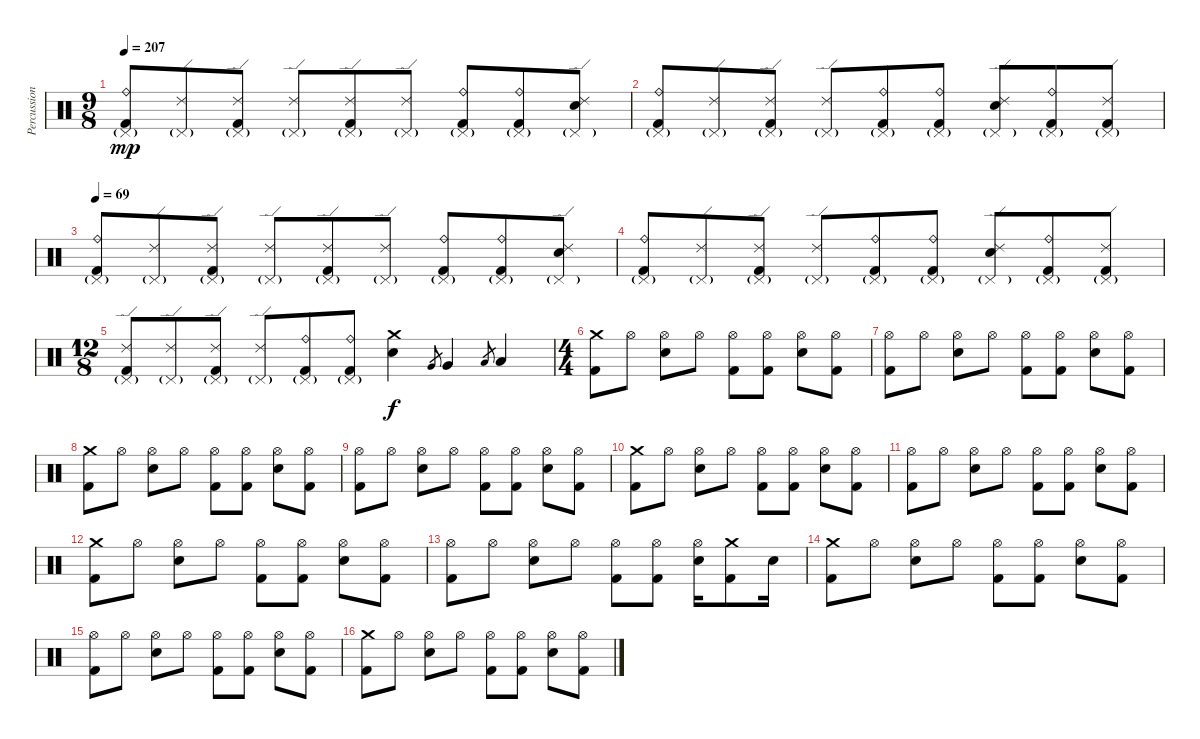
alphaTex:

\track ("Percussion" "Percussion") {instrument percussion}
\staff {score}
\articulation defaults
\ts (9 8)
\tempo 207
\clef neutral
\ks c
("Ride (bell)" "Pedal Hi-Hat (hit)"{g} "Kick (hit) 2").8{dy mp} ("Ride (edge) 2" "Pedal Hi-Hat (hit)"{g}).8 ("Ride (edge) 2" "Pedal Hi-Hat (hit)"{g} "Kick (hit) 2").8 ("Ride (edge) 2" "Pedal Hi-Hat (hit)"{g}).8 ("Ride (edge) 2" "Pedal Hi-Hat (hit)"{g} "Kick (hit) 2").8 ("Ride (edge) 2" "Pedal Hi-Hat (hit)"{g}).8 ("Ride (bell)" "Pedal Hi-Hat (hit)"{g} "Kick (hit) 2").8 ("Ride (bell)" "Pedal Hi-Hat (hit)"{g} "Kick (hit) 2").8 ("Ride (edge) 2" "Pedal Hi-Hat (hit)"{g} "Electric Snare (hit)").8 |
("Ride (bell)" "Pedal Hi-Hat (hit)"{g} "Kick (hit) 2").8 ("Ride (edge) 2" "Pedal Hi-Hat (hit)"{g}).8 ("Ride (edge) 2" "Pedal Hi-Hat (hit)"{g} "Kick (hit) 2").8 ("Ride (edge) 2" "Pedal Hi-Hat (hit)"{g}).8 ("Ride (bell)" "Pedal Hi-Hat (hit)"{g} "Kick (hit) 2").8 ("Ride (bell)" "Pedal Hi-Hat (hit)"{g} "Kick (hit) 2").8 ("Ride (edge) 2" "Pedal Hi-Hat (hit)"{g} "Electric Snare (hit)").8 ("Ride (bell)" "Pedal Hi-Hat (hit)"{g} "Kick (hit) 2").8 ("Ride (edge) 2" "Pedal Hi-Hat (hit)"{g} "Kick (hit) 2").8 |
\tempo 69
("Ride (bell)" "Pedal Hi-Hat (hit)"{g} "Kick (hit) 2").8 ("Ride (edge) 2" "Pedal Hi-Hat (hit)"{g}).8 ("Ride (edge) 2" "Pedal Hi-Hat (hit)"{g} "Kick (hit) 2").8 ("Ride (edge) 2" "Pedal Hi-Hat (hit)"{g}).8 ("Ride (edge) 2" "Pedal Hi-Hat (hit)"{g} "Kick (hit) 2").8 ("Ride (edge) 2" "Pedal Hi-Hat (hit)"{g}).8 ("Ride (bell)" "Pedal Hi-Hat (hit)"{g} "Kick (hit) 2").8 ("Ride (bell)" "Pedal Hi-Hat (hit)"{g} "Kick (hit) 2").8 ("Ride (edge) 2" "Pedal Hi-Hat (hit)"{g} "Electric Snare (hit)").8 |
("Ride (bell)" "Pedal Hi-Hat (hit)"{g} "Kick (hit) 2").8 ("Ride (edge) 2" "Pedal Hi-Hat (hit)"{g}).8 ("Ride (edge) 2" "Pedal Hi-Hat (hit)"{g} "Kick (hit) 2").8 ("Ride (edge) 2" "Pedal Hi-Hat (hit)"{g}).8 ("Ride (bell)" "Pedal Hi-Hat (hit)"{g} "Kick (hit) 2").8 ("Ride (bell)" "Pedal Hi-Hat (hit)"{g} "Kick (hit) 2").8 ("Ride (edge) 2" "Pedal Hi-Hat (hit)"{g} "Electric Snare (hit)").8 ("Ride (bell)" "Pedal Hi-Hat (hit)"{g} "Kick (hit) 2").8 ("Ride (edge) 2" "Pedal Hi-Hat (hit)"{g} "Kick (hit) 2").8 |
\ts (12 8)
("Ride (edge) 2" "Pedal Hi-Hat (hit)"{g} "Kick (hit) 2").8 ("Ride (edge) 2" "Pedal Hi-Hat (hit)"{g}).8 ("Ride (edge) 2" "Pedal Hi-Hat (hit)"{g} "Kick (hit) 2").8 ("Ride (edge) 2" "Pedal Hi-Hat (hit)"{g}).8 ("Ride (bell)" "Pedal Hi-Hat (hit)"{g} "Kick (hit) 2").8 ("Ride (bell)" "Pedal Hi-Hat (hit)"{g} "Kick (hit) 2").8 ("Crash medium (hit)" "Electric Snare (hit)").4{dy f} "Very Low Tom (hit)".8{gr} "Very Low Tom (hit)".4 "Low Floor Tom (hit)".8{gr} "Low Floor Tom (hit)".4 |
\ts (4 4)
("Crash medium (hit)" "Kick (hit) 2").8 "Hi-Hat (open)".8 ("Hi-Hat (open)" "Electric Snare (hit)").8 "Hi-Hat (open)".8 ("Hi-Hat (open)" "Kick (hit) 2").8 ("Hi-Hat (open)" "Kick (hit) 2").8 ("Hi-Hat (open)" "Electric Snare (hit)").8 ("Hi-Hat (open)" "Kick (hit) 2").8 |
("Hi-Hat (open)" "Kick (hit) 2").8 "Hi-Hat (open)".8 ("Hi-Hat (open)" "Electric Snare (hit)").8 "Hi-Hat (open)".8 ("Hi-Hat (open)" "Kick (hit) 2").8 ("Hi-Hat (open)" "Kick (hit) 2").8 ("Hi-Hat (open)" "Electric Snare (hit)").8 ("Hi-Hat (open)" "Kick (hit) 2").8 |
("Crash medium (hit)" "Kick (hit) 2").8 "Hi-Hat (open)".8 ("Hi-Hat (open)" "Electric Snare (hit)").8 "Hi-Hat (open)".8 ("Hi-Hat (open)" "Kick (hit) 2").8 ("Hi-Hat (open)" "Kick (hit) 2").8 ("Hi-Hat (open)" "Electric Snare (hit)").8 ("Hi-Hat (open)" "Kick (hit) 2").8 |
("Hi-Hat (open)" "Kick (hit) 2").8 "Hi-Hat (open)".8 ("Hi-Hat (open)" "Electric Snare (hit)").8 "Hi-Hat (open)".8 ("Hi-Hat (open)" "Kick (hit) 2").8 ("Hi-Hat (open)" "Kick (hit) 2").8 ("Hi-Hat (open)" "Electric Snare (hit)").8 ("Hi-Hat (open)" "Kick (hit) 2").8 |
("Crash medium (hit)" "Kick (hit) 2").8 "Hi-Hat (open)".8 ("Hi-Hat (open)" "Electric Snare (hit)").8 "Hi-Hat (open)".8 ("Hi-Hat (open)" "Kick (hit) 2").8 ("Hi-Hat (open)" "Kick (hit) 2").8 ("Hi-Hat (open)" "Electric Snare (hit)").8 ("Hi-Hat (open)" "Kick (hit) 2").8 |
("Hi-Hat (open)" "Kick (hit) 2").8 "Hi-Hat (open)".8 ("Hi-Hat (open)" "Electric Snare (hit)").8 "Hi-Hat (open)".8 ("Hi-Hat (open)" "Kick (hit) 2").8 ("Hi-Hat (open)" "Kick (hit) 2").8 ("Hi-Hat (open)" "Electric Snare (hit)").8 ("Hi-Hat (open)" "Kick (hit) 2").8 |
("Crash medium (hit)" "Kick (hit) 2").8 "Hi-Hat (open)".8 ("Hi-Hat (open)" "Electric Snare (hit)").8 "Hi-Hat (open)".8 ("Hi-Hat (open)" "Kick (hit) 2").8 ("Hi-Hat (open)" "Kick (hit) 2").8 ("Hi-Hat (open)" "Electric Snare (hit)").8 ("Hi-Hat (open)" "Kick (hit) 2").8 |
("Hi-Hat (open)" "Kick (hit) 2").8 "Hi-Hat (open)".8 ("Hi-Hat (open)" "Electric Snare (hit)").8 "Hi-Hat (open)".8 ("Hi-Hat (open)" "Kick (hit) 2").8 ("Hi-Hat (open)" "Kick (hit) 2").8 ("Hi-Hat (open)" "Electric Snare (hit)").16 ("Crash medium (hit)" "Kick (hit) 2").8 "Electric Snare (hit)".16 |
("Crash medium (hit)" "Kick (hit) 2").8 "Hi-Hat (open)".8 ("Hi-Hat (open)" "Electric Snare (hit)").8 "Hi-Hat (open)".8 ("Hi-Hat (open)" "Kick (hit) 2").8 ("Hi-Hat (open)" "Kick (hit) 2").8 ("Hi-Hat (open)" "Electric Snare (hit)").8 ("Hi-Hat (open)" "Kick (hit) 2").8 |
("Hi-Hat (open)" "Kick (hit) 2").8 "Hi-Hat (open)".8 ("Hi-Hat (open)" "Electric Snare (hit)").8 "Hi-Hat (open)".8 ("Hi-Hat (open)" "Kick (hit) 2").8 ("Hi-Hat (open)" "Kick (hit) 2").8 ("Hi-Hat (open)" "Electric Snare (hit)").8 ("Hi-Hat (open)" "Kick (hit) 2").8 |
("Crash medium (hit)" "Kick (hit) 2").8 "Hi-Hat (open)".8 ("Hi-Hat (open)" "Electric Snare (hit)").8 "Hi-Hat (open)".8 ("Hi-Hat (open)" "Kick (hit) 2").8 ("Hi-Hat (open)" "Kick (hit) 2").8 ("Hi-Hat (open)" "Electric Snare (hit)").8 ("Hi-Hat (open)" "Kick (hit) 2").8
